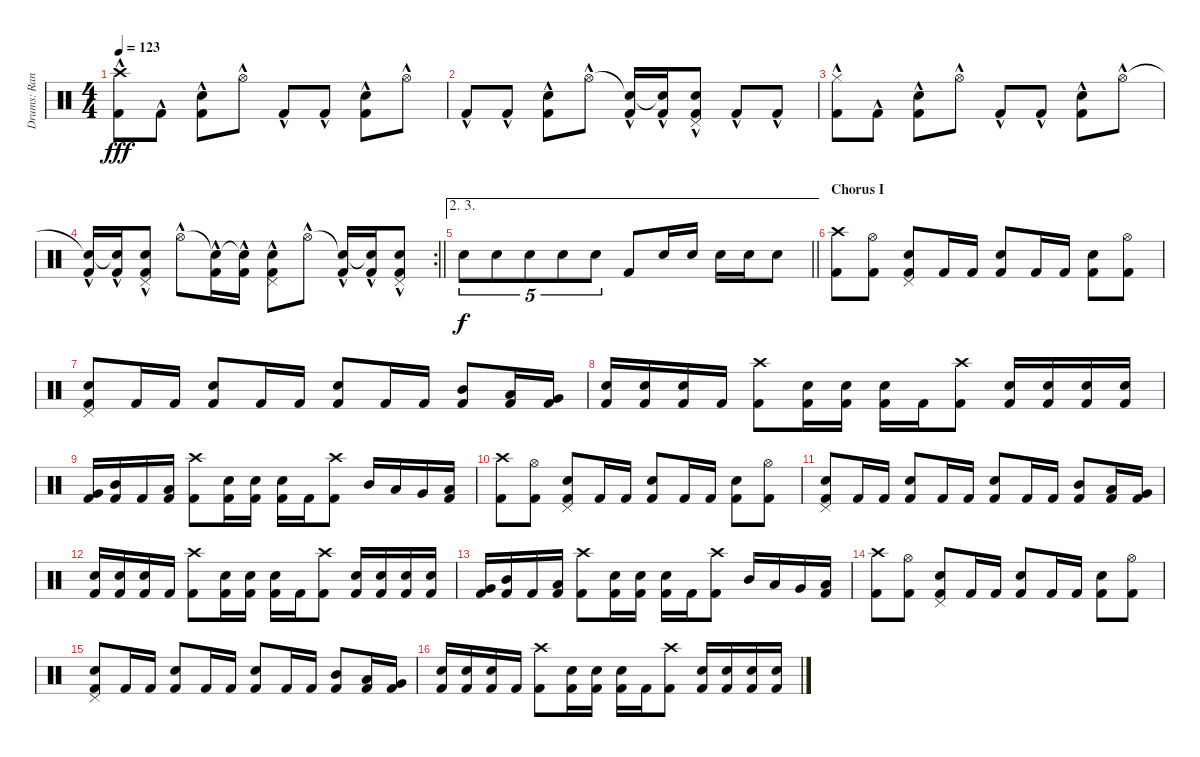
\track ("Drums: Randy" "Drums: Ran") {instrument percussion}
\staff {score}
\articulation defaults
\ts (4 4)
\tempo 123
\clef neutral
\ks c
("Crash high (hit)"{hac} "Kick (hit) 2"{hac}).8{dy fff} "Kick (hit) 2"{hac}.8 ("Snare (hit) 2"{hac} "Kick (hit) 2"{hac}).8 "Hi-Hat (open)"{hac}.8 "Kick (hit) 2"{hac}.8 "Kick (hit) 2"{hac}.8 ("Snare (hit) 2"{hac} "Kick (hit) 2"{hac}).8 "Hi-Hat (open)"{hac}.8 |
"Kick (hit) 2"{hac}.8 "Kick (hit) 2"{hac}.8 ("Snare (hit) 2"{hac} "Kick (hit) 2"{hac}).8 "Hi-Hat (open)"{hac}.8 ("Snare (hit)"{t} "Kick (hit) 2"{hac}).16 ("Snare (hit)"{t} "Kick (hit) 2"{hac}).16 ("Pedal Hi-Hat (hit)"{hac} "Snare (hit) 2"{hac} "Kick (hit) 2"{hac}).8 "Kick (hit) 2"{hac}.8 "Kick (hit) 2"{hac}.8 |
("Hi-Hat (closed)"{hac} "Kick (hit) 2"{hac}).8 "Kick (hit) 2"{hac}.8 ("Snare (hit) 2"{hac} "Kick (hit) 2"{hac}).8 "Hi-Hat (open)"{hac}.8 "Kick (hit) 2"{hac}.8 "Kick (hit) 2"{hac}.8 ("Snare (hit) 2"{hac} "Kick (hit) 2"{hac}).8 "Hi-Hat (open)"{hac}.8 |
\rc 2
\barLineRight lightlight
("Snare (hit)"{t} "Kick (hit) 2"{hac}).16 ("Snare (hit)"{t} "Kick (hit) 2"{hac}).16 ("Pedal Hi-Hat (hit)"{hac} "Snare (hit) 2"{hac} "Kick (hit) 2"{hac}).8 "Hi-Hat (open)"{hac}.8 ("Snare (hit)"{t} "Kick (hit) 2"{hac}).16 ("Snare (hit)"{t} "Kick (hit) 2"{hac}).16 ("Pedal Hi-Hat (hit)"{hac} "Snare (hit) 2"{hac} "Kick (hit) 2"{hac}).8 "Hi-Hat (open)"{hac}.8 ("Snare (hit)"{t} "Kick (hit) 2"{hac}).16 ("Snare (hit)"{t} "Kick (hit) 2"{hac}).16 ("Pedal Hi-Hat (hit)"{hac} "Snare (hit) 2"{hac} "Kick (hit) 2"{hac}).8 |
\ae (2 3)
\barLineRight lightlight "Snare (hit) 2".8{tu (5 4) dy f} "Snare (hit) 2".8{tu (5 4)} "Snare (hit) 2".8{tu (5 4)} "Snare (hit) 2".8{tu (5 4)} "Snare (hit) 2".8{tu (5 4)} "Kick (hit) 2".8 "Snare (hit) 2".16 "Snare (hit) 2".16 "Snare (hit) 2".16 "Snare (hit) 2".16 "Snare (hit) 2".8
|
\section ("" "Chorus I")
("Crash high (hit)" "Kick (hit) 2").8 ("Hi-Hat (open)" "Kick (hit) 2").8 ("Pedal Hi-Hat (hit)" "Snare (hit) 2" "Kick (hit) 2").8 "Kick (hit) 2".16 "Kick (hit) 2".16 ("Snare (hit) 2" "Kick (hit) 2").8 "Kick (hit) 2".16 "Kick (hit) 2".16 ("Snare (hit) 2" "Kick (hit) 2").8 ("Hi-Hat (open)" "Kick (hit) 2").8 |
("Pedal Hi-Hat (hit)" "Snare (hit) 2" "Kick (hit) 2").8 "Kick (hit) 2".16 "Kick (hit) 2".16 ("Snare (hit) 2" "Kick (hit) 2").8 "Kick (hit) 2".16 "Kick (hit) 2".16 ("Snare (hit) 2" "Kick (hit) 2").8 "Kick (hit) 2".16 "Kick (hit) 2".16 ("Mid Tom (hit)" "Kick (hit) 2").8 ("Low Tom (hit)" "Kick (hit) 2").16 ("Very Low Tom (hit)" "Kick (hit) 2").16 |
("Snare (hit) 2" "Kick (hit) 2").16 ("Snare (hit) 2" "Kick (hit) 2").16 ("Snare (hit) 2" "Kick (hit) 2").16 "Kick (hit) 2".16 ("Crash high (hit)" "Kick (hit) 2").8 ("Snare (hit) 2" "Kick (hit) 2").16 ("Snare (hit) 2" "Kick (hit) 2").16 ("Snare (hit) 2" "Kick (hit) 2").16 "Kick (hit) 2".16 ("Crash high (hit)" "Kick (hit) 2").8 ("Snare (hit) 2" "Kick (hit) 2").16 ("Snare (hit) 2" "Kick (hit) 2").16 ("Snare (hit) 2" "Kick (hit) 2").16 ("Snare (hit) 2" "Kick (hit) 2").16 |
("Very Low Tom (hit)" "Kick (hit) 2").16 ("Mid Tom (hit)" "Kick (hit) 2").16 "Kick (hit) 2".16 ("Low Tom (hit)" "Kick (hit) 2").16 ("Crash high (hit)" "Kick (hit) 2").8 ("Snare (hit) 2" "Kick (hit) 2").16 ("Snare (hit) 2" "Kick (hit) 2").16 ("Snare (hit) 2" "Kick (hit) 2").16 "Kick (hit) 2".16 ("Crash high (hit)" "Kick (hit) 2").8 "Mid Tom (hit)".16 "Low Tom (hit)".16 "Very Low Tom (hit)".16 ("Low Floor Tom (hit)" "Kick (hit) 2").16 |
("Crash high (hit)" "Kick (hit) 2").8 ("Hi-Hat (open)" "Kick (hit) 2").8 ("Pedal Hi-Hat (hit)" "Snare (hit) 2" "Kick (hit) 2").8 "Kick (hit) 2".16 "Kick (hit) 2".16 ("Snare (hit) 2" "Kick (hit) 2").8 "Kick (hit) 2".16 "Kick (hit) 2".16 ("Snare (hit) 2" "Kick (hit) 2").8 ("Hi-Hat (open)" "Kick (hit) 2").8 |
("Pedal Hi-Hat (hit)" "Snare (hit) 2" "Kick (hit) 2").8 "Kick (hit) 2".16 "Kick (hit) 2".16 ("Snare (hit) 2" "Kick (hit) 2").8 "Kick (hit) 2".16 "Kick (hit) 2".16 ("Snare (hit) 2" "Kick (hit) 2").8 "Kick (hit) 2".16 "Kick (hit) 2".16 ("Mid Tom (hit)" "Kick (hit) 2").8 ("Low Tom (hit)" "Kick (hit) 2").16 ("Very Low Tom (hit)" "Kick (hit) 2").16 |
("Snare (hit) 2" "Kick (hit) 2").16 ("Snare (hit) 2" "Kick (hit) 2").16 ("Snare (hit) 2" "Kick (hit) 2").16 "Kick (hit) 2".16 ("Crash high (hit)" "Kick (hit) 2").8 ("Snare (hit) 2" "Kick (hit) 2").16 ("Snare (hit) 2" "Kick (hit) 2").16 ("Snare (hit) 2" "Kick (hit) 2").16 "Kick (hit) 2".16 ("Crash high (hit)" "Kick (hit) 2").8 ("Snare (hit) 2" "Kick (hit) 2").16 ("Snare (hit) 2" "Kick (hit) 2").16 ("Snare (hit) 2" "Kick (hit) 2").16 ("Snare (hit) 2" "Kick (hit) 2").16 |
("Very Low Tom (hit)" "Kick (hit) 2").16 ("Mid Tom (hit)" "Kick (hit) 2").16 "Kick (hit) 2".16 ("Low Tom (hit)" "Kick (hit) 2").16 ("Crash high (hit)" "Kick (hit) 2").8 ("Snare (hit) 2" "Kick (hit) 2").16 ("Snare (hit) 2" "Kick (hit) 2").16 ("Snare (hit) 2" "Kick (hit) 2").16 "Kick (hit) 2".16 ("Crash high (hit)" "Kick (hit) 2").8 "Mid Tom (hit)".16 "Low Tom (hit)".16 "Very Low Tom (hit)".16 ("Low Floor Tom (hit)" "Kick (hit) 2").16 |
("Crash high (hit)" "Kick (hit) 2").8 ("Hi-Hat (open)" "Kick (hit) 2").8 ("Pedal Hi-Hat (hit)" "Snare (hit) 2" "Kick (hit) 2").8 "Kick (hit) 2".16 "Kick (hit) 2".16 ("Snare (hit) 2" "Kick (hit) 2").8 "Kick (hit) 2".16 "Kick (hit) 2".16 ("Snare (hit) 2" "Kick (hit) 2").8 ("Hi-Hat (open)" "Kick (hit) 2").8 |
("Pedal Hi-Hat (hit)" "Snare (hit) 2" "Kick (hit) 2").8 "Kick (hit) 2".16 "Kick (hit) 2".16 ("Snare (hit) 2" "Kick (hit) 2").8 "Kick (hit) 2".16 "Kick (hit) 2".16 ("Snare (hit) 2" "Kick (hit) 2").8 "Kick (hit) 2".16 "Kick (hit) 2".16 ("Mid Tom (hit)" "Kick (hit) 2").8 ("Low Tom (hit)" "Kick (hit) 2").16 ("Very Low Tom (hit)" "Kick (hit) 2").16 |
("Snare (hit) 2" "Kick (hit) 2").16 ("Snare (hit) 2" "Kick (hit) 2").16 ("Snare (hit) 2" "Kick (hit) 2").16 "Kick (hit) 2".16 ("Crash high (hit)" "Kick (hit) 2").8 ("Snare (hit) 2" "Kick (hit) 2").16 ("Snare (hit) 2" "Kick (hit) 2").16 ("Snare (hit) 2" "Kick (hit) 2").16 "Kick (hit) 2".16 ("Crash high (hit)" "Kick (hit) 2").8 ("Snare (hit) 2" "Kick (hit) 2").16 ("Snare (hit) 2" "Kick (hit) 2").16 ("Snare (hit) 2" "Kick (hit) 2").16 ("Snare (hit) 2" "Kick (hit) 2").16
